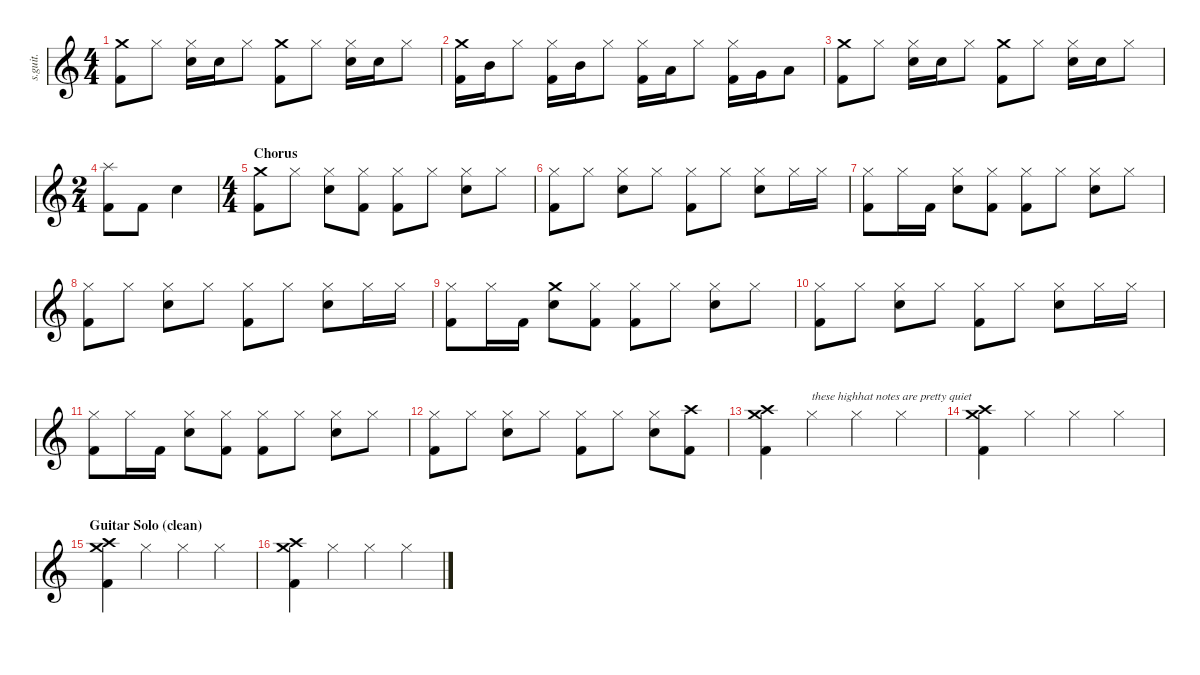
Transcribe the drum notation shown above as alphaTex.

\defaultSystemsLayout 4
\hideDynamics
\bracketExtendMode nobrackets
\track ("Lars Ulrich" "s.guit.") {instrument percussion}
\staff {score}
\articulation defaults
\ts (4 4)
\tempo (69 hide)
\clef g2
\ks c
("Crash medium (hit)" "Kick (hit) 2").8{lyrics (0 "") lyrics (1 "") lyrics (2 "") lyrics (3 "") lyrics (4 "") dy f} "Hi-Hat (closed)".8{lyrics (0 "") lyrics (1 "") lyrics (2 "") lyrics (3 "") lyrics (4 "")} ("Hi-Hat (closed)" "Snare (hit) 2").16{lyrics (0 "") lyrics (1 "") lyrics (2 "") lyrics (3 "") lyrics (4 "")} "Snare (hit) 2".16{lyrics (0 "") lyrics (1 "") lyrics (2 "") lyrics (3 "") lyrics (4 "")} "Hi-Hat (closed)".8{lyrics (0 "") lyrics (1 "") lyrics (2 "") lyrics (3 "") lyrics (4 "")} ("Crash medium (hit)" "Kick (hit) 2").8{lyrics (0 "") lyrics (1 "") lyrics (2 "") lyrics (3 "") lyrics (4 "")} "Hi-Hat (closed)".8{lyrics (0 "") lyrics (1 "") lyrics (2 "") lyrics (3 "") lyrics (4 "")} ("Hi-Hat (closed)" "Snare (hit) 2").16{lyrics (0 "") lyrics (1 "") lyrics (2 "") lyrics (3 "") lyrics (4 "")} "Snare (hit) 2".16{lyrics (0 "") lyrics (1 "") lyrics (2 "") lyrics (3 "") lyrics (4 "")} "Hi-Hat (closed)".8{lyrics (0 "") lyrics (1 "") lyrics (2 "") lyrics (3 "") lyrics (4 "")} |
("Crash medium (hit)" "Kick (hit) 2").16{lyrics (0 "") lyrics (1 "") lyrics (2 "") lyrics (3 "") lyrics (4 "")} "Mid Tom (hit)".16{lyrics (0 "") lyrics (1 "") lyrics (2 "") lyrics (3 "") lyrics (4 "") dy fff} "Hi-Hat (closed)".8{lyrics (0 "") lyrics (1 "") lyrics (2 "") lyrics (3 "") lyrics (4 "") dy f} ("Hi-Hat (closed)" "Kick (hit) 2").16{lyrics (0 "") lyrics (1 "") lyrics (2 "") lyrics (3 "") lyrics (4 "")} "Mid Tom (hit)".16{lyrics (0 "") lyrics (1 "") lyrics (2 "") lyrics (3 "") lyrics (4 "") dy fff} "Hi-Hat (closed)".8{lyrics (0 "") lyrics (1 "") lyrics (2 "") lyrics (3 "") lyrics (4 "") dy f} ("Hi-Hat (closed)" "Kick (hit) 2").16{lyrics (0 "") lyrics (1 "") lyrics (2 "") lyrics (3 "") lyrics (4 "")} "Low Tom (hit)".16{lyrics (0 "") lyrics (1 "") lyrics (2 "") lyrics (3 "") lyrics (4 "") dy fff} "Hi-Hat (closed)".8{lyrics (0 "") lyrics (1 "") lyrics (2 "") lyrics (3 "") lyrics (4 "") dy f} ("Hi-Hat (closed)" "Kick (hit) 2").16{lyrics (0 "") lyrics (1 "") lyrics (2 "") lyrics (3 "") lyrics (4 "")} "Very Low Tom (hit)".16{lyrics (0 "") lyrics (1 "") lyrics (2 "") lyrics (3 "") lyrics (4 "") dy fff} "Low Floor Tom (hit)".8{lyrics (0 "") lyrics (1 "") lyrics (2 "") lyrics (3 "") lyrics (4 "")} |
("Crash medium (hit)" "Kick (hit) 2").8{lyrics (0 "") lyrics (1 "") lyrics (2 "") lyrics (3 "") lyrics (4 "") dy f} "Hi-Hat (closed)".8{lyrics (0 "") lyrics (1 "") lyrics (2 "") lyrics (3 "") lyrics (4 "")} ("Hi-Hat (closed)" "Snare (hit) 2").16{lyrics (0 "") lyrics (1 "") lyrics (2 "") lyrics (3 "") lyrics (4 "")} "Snare (hit) 2".16{lyrics (0 "") lyrics (1 "") lyrics (2 "") lyrics (3 "") lyrics (4 "")} "Hi-Hat (closed)".8{lyrics (0 "") lyrics (1 "") lyrics (2 "") lyrics (3 "") lyrics (4 "")} ("Crash medium (hit)" "Kick (hit) 2").8{lyrics (0 "") lyrics (1 "") lyrics (2 "") lyrics (3 "") lyrics (4 "")} "Hi-Hat (closed)".8{lyrics (0 "") lyrics (1 "") lyrics (2 "") lyrics (3 "") lyrics (4 "")} ("Hi-Hat (closed)" "Snare (hit) 2").16{lyrics (0 "") lyrics (1 "") lyrics (2 "") lyrics (3 "") lyrics (4 "")} "Snare (hit) 2".16{lyrics (0 "") lyrics (1 "") lyrics (2 "") lyrics (3 "") lyrics (4 "")} "Hi-Hat (closed)".8{lyrics (0 "") lyrics (1 "") lyrics (2 "") lyrics (3 "") lyrics (4 "")} |
\ts (2 4)
\beaming (8 2 2 2 2)
("Splash (hit)" "Kick (hit) 2").8{lyrics (0 "") lyrics (1 "") lyrics (2 "") lyrics (3 "") lyrics (4 "")} "Kick (hit) 2".8{lyrics (0 "") lyrics (1 "") lyrics (2 "") lyrics (3 "") lyrics (4 "") dy fff} "Snare (hit) 2".4{lyrics (0 "") lyrics (1 "") lyrics (2 "") lyrics (3 "") lyrics (4 "") dy f} |
\ts (4 4)
\beaming (8 2 2 2 2)
\section ("" "Chorus")
("Crash medium (hit)" "Kick (hit) 2").8{lyrics (0 "") lyrics (1 "") lyrics (2 "") lyrics (3 "") lyrics (4 "")} "Hi-Hat (closed)".8{lyrics (0 "") lyrics (1 "") lyrics (2 "") lyrics (3 "") lyrics (4 "")} ("Hi-Hat (closed)" "Snare (hit) 2").8{lyrics (0 "") lyrics (1 "") lyrics (2 "") lyrics (3 "") lyrics (4 "")} ("Hi-Hat (closed)" "Kick (hit) 2").8{lyrics (0 "") lyrics (1 "") lyrics (2 "") lyrics (3 "") lyrics (4 "")} ("Hi-Hat (closed)" "Kick (hit) 2").8{lyrics (0 "") lyrics (1 "") lyrics (2 "") lyrics (3 "") lyrics (4 "")} "Hi-Hat (closed)".8{lyrics (0 "") lyrics (1 "") lyrics (2 "") lyrics (3 "") lyrics (4 "")} ("Hi-Hat (closed)" "Snare (hit) 2").8{lyrics (0 "") lyrics (1 "") lyrics (2 "") lyrics (3 "") lyrics (4 "")} "Hi-Hat (closed)".8{lyrics (0 "") lyrics (1 "") lyrics (2 "") lyrics (3 "") lyrics (4 "")} |
("Hi-Hat (closed)" "Kick (hit) 2").8{lyrics (0 "") lyrics (1 "") lyrics (2 "") lyrics (3 "") lyrics (4 "")} "Hi-Hat (closed)".8{lyrics (0 "") lyrics (1 "") lyrics (2 "") lyrics (3 "") lyrics (4 "")} ("Hi-Hat (closed)" "Snare (hit) 2").8{lyrics (0 "") lyrics (1 "") lyrics (2 "") lyrics (3 "") lyrics (4 "")} "Hi-Hat (closed)".8{lyrics (0 "") lyrics (1 "") lyrics (2 "") lyrics (3 "") lyrics (4 "")} ("Hi-Hat (closed)" "Kick (hit) 2").8{lyrics (0 "") lyrics (1 "") lyrics (2 "") lyrics (3 "") lyrics (4 "")} "Hi-Hat (closed)".8{lyrics (0 "") lyrics (1 "") lyrics (2 "") lyrics (3 "") lyrics (4 "")} ("Hi-Hat (closed)" "Snare (hit) 2").8{lyrics (0 "") lyrics (1 "") lyrics (2 "") lyrics (3 "") lyrics (4 "")} "Hi-Hat (closed)".16{lyrics (0 "") lyrics (1 "") lyrics (2 "") lyrics (3 "") lyrics (4 "")} "Hi-Hat (closed)".16{lyrics (0 "") lyrics (1 "") lyrics (2 "") lyrics (3 "") lyrics (4 "")} |
("Hi-Hat (closed)" "Kick (hit) 2").8{lyrics (0 "") lyrics (1 "") lyrics (2 "") lyrics (3 "") lyrics (4 "")} "Hi-Hat (closed)".16{lyrics (0 "") lyrics (1 "") lyrics (2 "") lyrics (3 "") lyrics (4 "")} "Kick (hit) 2".16{lyrics (0 "") lyrics (1 "") lyrics (2 "") lyrics (3 "") lyrics (4 "") dy fff} ("Hi-Hat (closed)" "Snare (hit) 2").8{lyrics (0 "") lyrics (1 "") lyrics (2 "") lyrics (3 "") lyrics (4 "") dy f} ("Hi-Hat (closed)" "Kick (hit) 2").8{lyrics (0 "") lyrics (1 "") lyrics (2 "") lyrics (3 "") lyrics (4 "")} ("Hi-Hat (closed)" "Kick (hit) 2").8{lyrics (0 "") lyrics (1 "") lyrics (2 "") lyrics (3 "") lyrics (4 "")} "Hi-Hat (closed)".8{lyrics (0 "") lyrics (1 "") lyrics (2 "") lyrics (3 "") lyrics (4 "")} ("Hi-Hat (closed)" "Snare (hit) 2").8{lyrics (0 "") lyrics (1 "") lyrics (2 "") lyrics (3 "") lyrics (4 "")} "Hi-Hat (closed)".8{lyrics (0 "") lyrics (1 "") lyrics (2 "") lyrics (3 "") lyrics (4 "")} |
("Hi-Hat (closed)" "Kick (hit) 2").8{lyrics (0 "") lyrics (1 "") lyrics (2 "") lyrics (3 "") lyrics (4 "")} "Hi-Hat (closed)".8{lyrics (0 "") lyrics (1 "") lyrics (2 "") lyrics (3 "") lyrics (4 "")} ("Hi-Hat (closed)" "Snare (hit) 2").8{lyrics (0 "") lyrics (1 "") lyrics (2 "") lyrics (3 "") lyrics (4 "")} "Hi-Hat (closed)".8{lyrics (0 "") lyrics (1 "") lyrics (2 "") lyrics (3 "") lyrics (4 "")} ("Hi-Hat (closed)" "Kick (hit) 2").8{lyrics (0 "") lyrics (1 "") lyrics (2 "") lyrics (3 "") lyrics (4 "")} "Hi-Hat (closed)".8{lyrics (0 "") lyrics (1 "") lyrics (2 "") lyrics (3 "") lyrics (4 "")} ("Hi-Hat (closed)" "Snare (hit) 2").8{lyrics (0 "") lyrics (1 "") lyrics (2 "") lyrics (3 "") lyrics (4 "")} "Hi-Hat (closed)".16{lyrics (0 "") lyrics (1 "") lyrics (2 "") lyrics (3 "") lyrics (4 "")} "Hi-Hat (closed)".16{lyrics (0 "") lyrics (1 "") lyrics (2 "") lyrics (3 "") lyrics (4 "")} |
("Hi-Hat (closed)" "Kick (hit) 2").8{lyrics (0 "") lyrics (1 "") lyrics (2 "") lyrics (3 "") lyrics (4 "")} "Hi-Hat (closed)".16{lyrics (0 "") lyrics (1 "") lyrics (2 "") lyrics (3 "") lyrics (4 "")} "Kick (hit) 2".16{lyrics (0 "") lyrics (1 "") lyrics (2 "") lyrics (3 "") lyrics (4 "") dy fff} ("Crash medium (hit)" "Snare (hit) 2").8{lyrics (0 "") lyrics (1 "") lyrics (2 "") lyrics (3 "") lyrics (4 "") dy f} ("Hi-Hat (closed)" "Kick (hit) 2").8{lyrics (0 "") lyrics (1 "") lyrics (2 "") lyrics (3 "") lyrics (4 "")} ("Hi-Hat (closed)" "Kick (hit) 2").8{lyrics (0 "") lyrics (1 "") lyrics (2 "") lyrics (3 "") lyrics (4 "")} "Hi-Hat (closed)".8{lyrics (0 "") lyrics (1 "") lyrics (2 "") lyrics (3 "") lyrics (4 "")} ("Hi-Hat (closed)" "Snare (hit) 2").8{lyrics (0 "") lyrics (1 "") lyrics (2 "") lyrics (3 "") lyrics (4 "")} "Hi-Hat (closed)".8{lyrics (0 "") lyrics (1 "") lyrics (2 "") lyrics (3 "") lyrics (4 "")} |
("Hi-Hat (closed)" "Kick (hit) 2").8{lyrics (0 "") lyrics (1 "") lyrics (2 "") lyrics (3 "") lyrics (4 "")} "Hi-Hat (closed)".8{lyrics (0 "") lyrics (1 "") lyrics (2 "") lyrics (3 "") lyrics (4 "")} ("Hi-Hat (closed)" "Snare (hit) 2").8{lyrics (0 "") lyrics (1 "") lyrics (2 "") lyrics (3 "") lyrics (4 "")} "Hi-Hat (closed)".8{lyrics (0 "") lyrics (1 "") lyrics (2 "") lyrics (3 "") lyrics (4 "")} ("Hi-Hat (closed)" "Kick (hit) 2").8{lyrics (0 "") lyrics (1 "") lyrics (2 "") lyrics (3 "") lyrics (4 "")} "Hi-Hat (closed)".8{lyrics (0 "") lyrics (1 "") lyrics (2 "") lyrics (3 "") lyrics (4 "")} ("Hi-Hat (closed)" "Snare (hit) 2").8{lyrics (0 "") lyrics (1 "") lyrics (2 "") lyrics (3 "") lyrics (4 "")} "Hi-Hat (closed)".16{lyrics (0 "") lyrics (1 "") lyrics (2 "") lyrics (3 "") lyrics (4 "")} "Hi-Hat (closed)".16{lyrics (0 "") lyrics (1 "") lyrics (2 "") lyrics (3 "") lyrics (4 "")} |
("Hi-Hat (closed)" "Kick (hit) 2").8{lyrics (0 "") lyrics (1 "") lyrics (2 "") lyrics (3 "") lyrics (4 "")} "Hi-Hat (closed)".16{lyrics (0 "") lyrics (1 "") lyrics (2 "") lyrics (3 "") lyrics (4 "")} "Kick (hit) 2".16{lyrics (0 "") lyrics (1 "") lyrics (2 "") lyrics (3 "") lyrics (4 "") dy fff} ("Hi-Hat (closed)" "Snare (hit) 2").8{lyrics (0 "") lyrics (1 "") lyrics (2 "") lyrics (3 "") lyrics (4 "") dy f} ("Hi-Hat (closed)" "Kick (hit) 2").8{lyrics (0 "") lyrics (1 "") lyrics (2 "") lyrics (3 "") lyrics (4 "")} ("Hi-Hat (closed)" "Kick (hit) 2").8{lyrics (0 "") lyrics (1 "") lyrics (2 "") lyrics (3 "") lyrics (4 "")} "Hi-Hat (closed)".8{lyrics (0 "") lyrics (1 "") lyrics (2 "") lyrics (3 "") lyrics (4 "")} ("Hi-Hat (closed)" "Snare (hit) 2").8{lyrics (0 "") lyrics (1 "") lyrics (2 "") lyrics (3 "") lyrics (4 "")} "Hi-Hat (closed)".8{lyrics (0 "") lyrics (1 "") lyrics (2 "") lyrics (3 "") lyrics (4 "")} |
("Hi-Hat (closed)" "Kick (hit) 2").8{lyrics (0 "") lyrics (1 "") lyrics (2 "") lyrics (3 "") lyrics (4 "")} "Hi-Hat (closed)".8{lyrics (0 "") lyrics (1 "") lyrics (2 "") lyrics (3 "") lyrics (4 "")} ("Hi-Hat (closed)" "Snare (hit) 2").8{lyrics (0 "") lyrics (1 "") lyrics (2 "") lyrics (3 "") lyrics (4 "")} "Hi-Hat (closed)".8{lyrics (0 "") lyrics (1 "") lyrics (2 "") lyrics (3 "") lyrics (4 "")} ("Hi-Hat (closed)" "Kick (hit) 2").8{lyrics (0 "") lyrics (1 "") lyrics (2 "") lyrics (3 "") lyrics (4 "")} "Hi-Hat (closed)".8{lyrics (0 "") lyrics (1 "") lyrics (2 "") lyrics (3 "") lyrics (4 "")} ("Hi-Hat (closed)" "Snare (hit) 2").8{lyrics (0 "") lyrics (1 "") lyrics (2 "") lyrics (3 "") lyrics (4 "")} ("Crash high (hit)" "Kick (hit) 2").8{lyrics (0 "") lyrics (1 "") lyrics (2 "") lyrics (3 "") lyrics (4 "")} |
("Crash medium (hit)" "Crash high (hit)" "Kick (hit) 2").4{lyrics (0 "") lyrics (1 "") lyrics (2 "") lyrics (3 "") lyrics (4 "")} "Hi-Hat (closed)".4{txt "these highhat notes are pretty quiet" lyrics (0 "") lyrics (1 "") lyrics (2 "") lyrics (3 "") lyrics (4 "") dy p} "Hi-Hat (closed)".4{lyrics (0 "") lyrics (1 "") lyrics (2 "") lyrics (3 "") lyrics (4 "")} "Hi-Hat (closed)".4{lyrics (0 "") lyrics (1 "") lyrics (2 "") lyrics (3 "") lyrics (4 "")} |
("Crash medium (hit)" "Crash high (hit)" "Kick (hit) 2").4{lyrics (0 "") lyrics (1 "") lyrics (2 "") lyrics (3 "") lyrics (4 "") dy f} "Hi-Hat (closed)".4{lyrics (0 "") lyrics (1 "") lyrics (2 "") lyrics (3 "") lyrics (4 "") dy p} "Hi-Hat (closed)".4{lyrics (0 "") lyrics (1 "") lyrics (2 "") lyrics (3 "") lyrics (4 "")} "Hi-Hat (closed)".4{lyrics (0 "") lyrics (1 "") lyrics (2 "") lyrics (3 "") lyrics (4 "")} |
\section ("" "Guitar Solo (clean)")
("Crash medium (hit)" "Crash high (hit)" "Kick (hit) 2").4{lyrics (0 "") lyrics (1 "") lyrics (2 "") lyrics (3 "") lyrics (4 "") dy f} "Hi-Hat (closed)".4{lyrics (0 "") lyrics (1 "") lyrics (2 "") lyrics (3 "") lyrics (4 "") dy p} "Hi-Hat (closed)".4{lyrics (0 "") lyrics (1 "") lyrics (2 "") lyrics (3 "") lyrics (4 "")} "Hi-Hat (closed)".4{lyrics (0 "") lyrics (1 "") lyrics (2 "") lyrics (3 "") lyrics (4 "")} |
("Crash medium (hit)" "Crash high (hit)" "Kick (hit) 2").4{lyrics (0 "") lyrics (1 "") lyrics (2 "") lyrics (3 "") lyrics (4 "") dy f} "Hi-Hat (closed)".4{lyrics (0 "") lyrics (1 "") lyrics (2 "") lyrics (3 "") lyrics (4 "") dy p} "Hi-Hat (closed)".4{lyrics (0 "") lyrics (1 "") lyrics (2 "") lyrics (3 "") lyrics (4 "")} "Hi-Hat (closed)".4{lyrics (0 "") lyrics (1 "") lyrics (2 "") lyrics (3 "") lyrics (4 "")}
